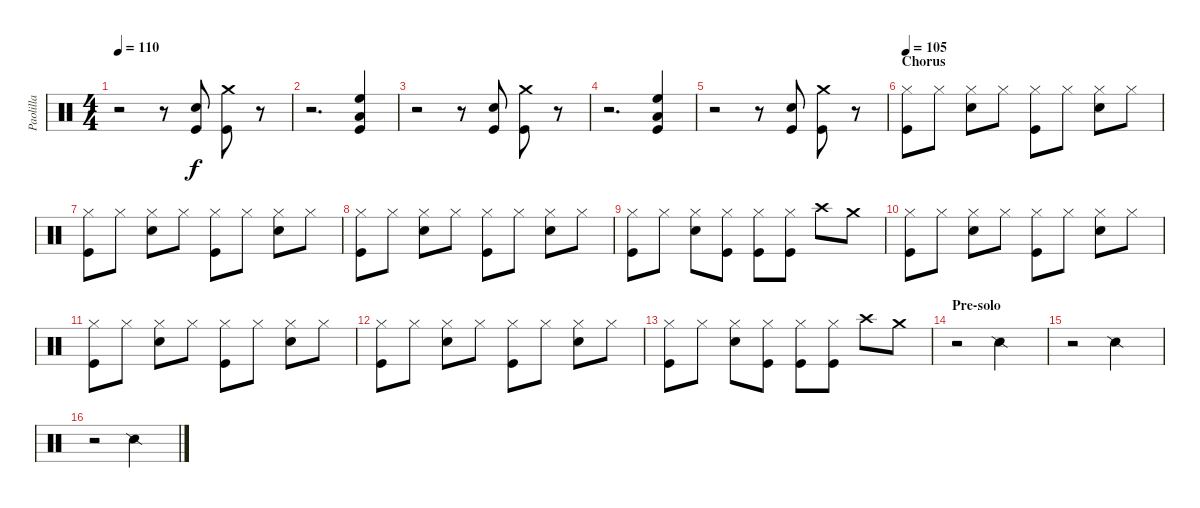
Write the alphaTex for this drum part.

\track ("Paolilla" "Paolilla") {instrument percussion}
\staff {score}
\articulation defaults
\ts (4 4)
\tempo 110
\clef neutral
\ks c
r.2{dy f} r.8 ("Snare (hit) 2" "Kick (hit)").8 ("Crash medium (hit)" "Kick (hit)").8 r.8 |
r.2{d} ("Kick (hit)" "Low Tom (hit)" "High Floor Tom (hit)").4 |
r.2 r.8 ("Snare (hit) 2" "Kick (hit)").8 ("Crash medium (hit)" "Kick (hit)").8 r.8 |
r.2{d} ("Kick (hit)" "Low Tom (hit)" "High Floor Tom (hit)").4 |
r.2 r.8 ("Snare (hit) 2" "Kick (hit)").8 ("Crash medium (hit)" "Kick (hit)").8 r.8 |
\section ("" "Chorus")
\tempo 105
("Hi-Hat (closed)" "Kick (hit)").8 "Hi-Hat (closed)".8 ("Hi-Hat (closed)" "Snare (hit) 2").8 "Hi-Hat (closed)".8 ("Hi-Hat (closed)" "Kick (hit)").8 "Hi-Hat (closed)".8 ("Hi-Hat (closed)" "Snare (hit) 2").8 "Hi-Hat (closed)".8 |
("Hi-Hat (closed)" "Kick (hit)").8 "Hi-Hat (closed)".8 ("Hi-Hat (closed)" "Snare (hit) 2").8 "Hi-Hat (closed)".8 ("Hi-Hat (closed)" "Kick (hit)").8 "Hi-Hat (closed)".8 ("Hi-Hat (closed)" "Snare (hit) 2").8 "Hi-Hat (closed)".8 |
("Hi-Hat (closed)" "Kick (hit)").8 "Hi-Hat (closed)".8 ("Hi-Hat (closed)" "Snare (hit) 2").8 "Hi-Hat (closed)".8 ("Hi-Hat (closed)" "Kick (hit)").8 "Hi-Hat (closed)".8 ("Hi-Hat (closed)" "Snare (hit) 2").8 "Hi-Hat (closed)".8 |
("Hi-Hat (closed)" "Kick (hit)").8 "Hi-Hat (closed)".8 ("Hi-Hat (closed)" "Snare (hit) 2").8 ("Hi-Hat (closed)" "Kick (hit)").8 ("Hi-Hat (closed)" "Kick (hit)").8 ("Hi-Hat (closed)" "Kick (hit)").8 "Crash high (hit)".8 "Crash medium (hit)".8 |
("Hi-Hat (closed)" "Kick (hit)").8 "Hi-Hat (closed)".8 ("Hi-Hat (closed)" "Snare (hit) 2").8 "Hi-Hat (closed)".8 ("Hi-Hat (closed)" "Kick (hit)").8 "Hi-Hat (closed)".8 ("Hi-Hat (closed)" "Snare (hit) 2").8 "Hi-Hat (closed)".8 |
("Hi-Hat (closed)" "Kick (hit)").8 "Hi-Hat (closed)".8 ("Hi-Hat (closed)" "Snare (hit) 2").8 "Hi-Hat (closed)".8 ("Hi-Hat (closed)" "Kick (hit)").8 "Hi-Hat (closed)".8 ("Hi-Hat (closed)" "Snare (hit) 2").8 "Hi-Hat (closed)".8 |
("Hi-Hat (closed)" "Kick (hit)").8 "Hi-Hat (closed)".8 ("Hi-Hat (closed)" "Snare (hit) 2").8 "Hi-Hat (closed)".8 ("Hi-Hat (closed)" "Kick (hit)").8 "Hi-Hat (closed)".8 ("Hi-Hat (closed)" "Snare (hit) 2").8 "Hi-Hat (closed)".8 |
("Hi-Hat (closed)" "Kick (hit)").8 "Hi-Hat (closed)".8 ("Hi-Hat (closed)" "Snare (hit) 2").8 ("Hi-Hat (closed)" "Kick (hit)").8 ("Hi-Hat (closed)" "Kick (hit)").8 ("Hi-Hat (closed)" "Kick (hit)").8 "Crash high (hit)".8 "Crash medium (hit)".8 |
\section ("" "Pre-solo")
r.2 "Snare (side stick) 2".2 |
r.2 "Snare (side stick) 2".2 |
r.2 "Snare (side stick) 2".2
